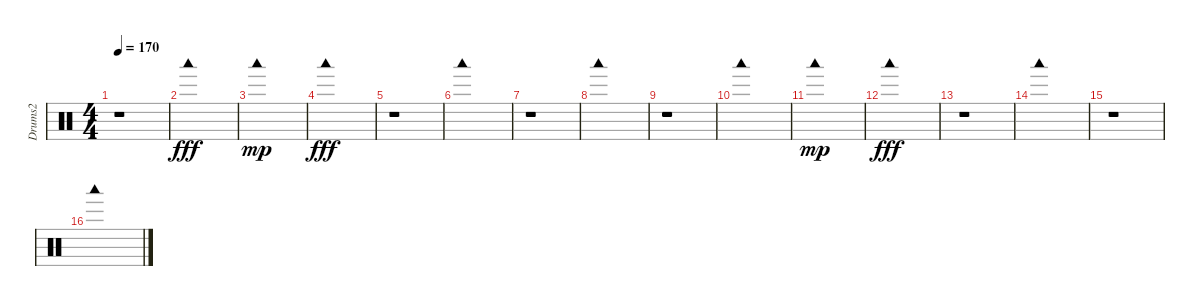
\track ("Drums2" "Drums2") {instrument percussion}
\staff {score}
\articulation defaults
\ts (4 4)
\tempo 170
\clef neutral
\ks c
r.1{dy fff} |
"Woodblock low (hit)".1 |
"Woodblock low (hit)".1{dy mp} |
"Woodblock low (hit)".1{dy fff} |
r.1 |
"Woodblock low (hit)".1 |
r.1 |
"Woodblock low (hit)".1 |
r.1 |
"Woodblock low (hit)".1 |
"Woodblock low (hit)".1{dy mp} |
"Woodblock low (hit)".1{dy fff} |
r.1 |
"Woodblock low (hit)".1 |
r.1 |
"Woodblock low (hit)".1
